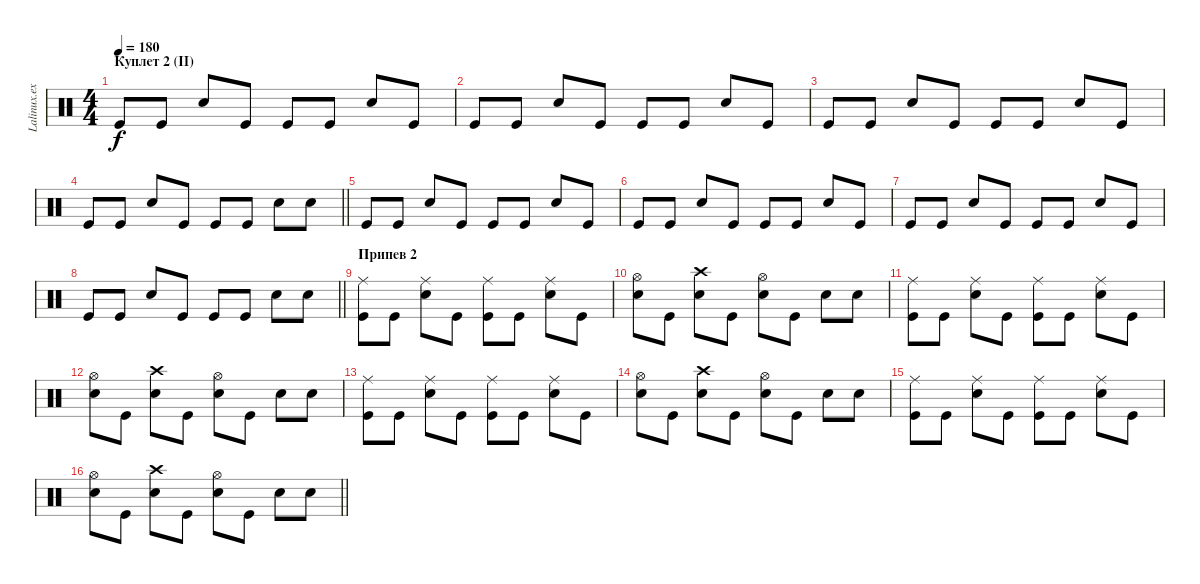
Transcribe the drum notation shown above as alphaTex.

\track ("Lalinux.exe" "Lalinux.ex") {instrument percussion}
\staff {score}
\articulation defaults
\ts (4 4)
\section ("" "Куплет 2 (II)")
\tempo 180
\clef neutral
\ks c "Kick (hit)".8{dy f} "Kick (hit)".8 "Electric Snare (hit)".8 "Kick (hit)".8 "Kick (hit)".8 "Kick (hit)".8 "Electric Snare (hit)".8 "Kick (hit)".8
|
"Kick (hit)".8 "Kick (hit)".8 "Electric Snare (hit)".8 "Kick (hit)".8 "Kick (hit)".8 "Kick (hit)".8 "Electric Snare (hit)".8 "Kick (hit)".8 |
"Kick (hit)".8 "Kick (hit)".8 "Electric Snare (hit)".8 "Kick (hit)".8 "Kick (hit)".8 "Kick (hit)".8 "Electric Snare (hit)".8 "Kick (hit)".8 |
\barLineRight lightlight "Kick (hit)".8 "Kick (hit)".8 "Electric Snare (hit)".8 "Kick (hit)".8 "Kick (hit)".8 "Kick (hit)".8 "Electric Snare (hit)".8 "Electric Snare (hit)".8
|
"Kick (hit)".8 "Kick (hit)".8 "Electric Snare (hit)".8 "Kick (hit)".8 "Kick (hit)".8 "Kick (hit)".8 "Electric Snare (hit)".8 "Kick (hit)".8 |
"Kick (hit)".8 "Kick (hit)".8 "Electric Snare (hit)".8 "Kick (hit)".8 "Kick (hit)".8 "Kick (hit)".8 "Electric Snare (hit)".8 "Kick (hit)".8 |
"Kick (hit)".8 "Kick (hit)".8 "Electric Snare (hit)".8 "Kick (hit)".8 "Kick (hit)".8 "Kick (hit)".8 "Electric Snare (hit)".8 "Kick (hit)".8 |
\barLineRight lightlight "Kick (hit)".8 "Kick (hit)".8 "Electric Snare (hit)".8 "Kick (hit)".8 "Kick (hit)".8 "Kick (hit)".8 "Electric Snare (hit)".8 "Electric Snare (hit)".8
|
\section ("" "Припев 2")
("Ride (middle)" "Kick (hit)").8 "Kick (hit)".8 ("Ride (middle)" "Electric Snare (hit)").8 "Kick (hit)".8 ("Ride (middle)" "Kick (hit)").8 "Kick (hit)".8 ("Ride (middle)" "Electric Snare (hit)").8 "Kick (hit)".8 |
("Hi-Hat (open)" "Electric Snare (hit)").8 "Kick (hit)".8 ("Crash high (hit)" "Electric Snare (hit)").8 "Kick (hit)".8 ("Hi-Hat (open)" "Electric Snare (hit)").8 "Kick (hit)".8 "Electric Snare (hit)".8 "Electric Snare (hit)".8 |
("Ride (middle)" "Kick (hit)").8 "Kick (hit)".8 ("Ride (middle)" "Electric Snare (hit)").8 "Kick (hit)".8 ("Ride (middle)" "Kick (hit)").8 "Kick (hit)".8 ("Ride (middle)" "Electric Snare (hit)").8 "Kick (hit)".8 |
("Hi-Hat (open)" "Electric Snare (hit)").8 "Kick (hit)".8 ("Crash high (hit)" "Electric Snare (hit)").8 "Kick (hit)".8 ("Hi-Hat (open)" "Electric Snare (hit)").8 "Kick (hit)".8 "Electric Snare (hit)".8 "Electric Snare (hit)".8 |
("Ride (middle)" "Kick (hit)").8 "Kick (hit)".8 ("Ride (middle)" "Electric Snare (hit)").8 "Kick (hit)".8 ("Ride (middle)" "Kick (hit)").8 "Kick (hit)".8 ("Ride (middle)" "Electric Snare (hit)").8 "Kick (hit)".8 |
("Hi-Hat (open)" "Electric Snare (hit)").8 "Kick (hit)".8 ("Crash high (hit)" "Electric Snare (hit)").8 "Kick (hit)".8 ("Hi-Hat (open)" "Electric Snare (hit)").8 "Kick (hit)".8 "Electric Snare (hit)".8 "Electric Snare (hit)".8 |
("Ride (middle)" "Kick (hit)").8 "Kick (hit)".8 ("Ride (middle)" "Electric Snare (hit)").8 "Kick (hit)".8 ("Ride (middle)" "Kick (hit)").8 "Kick (hit)".8 ("Ride (middle)" "Electric Snare (hit)").8 "Kick (hit)".8 |
\barLineRight lightlight
("Hi-Hat (open)" "Electric Snare (hit)").8 "Kick (hit)".8 ("Crash high (hit)" "Electric Snare (hit)").8 "Kick (hit)".8 ("Hi-Hat (open)" "Electric Snare (hit)").8 "Kick (hit)".8 "Electric Snare (hit)".8 "Electric Snare (hit)".8
